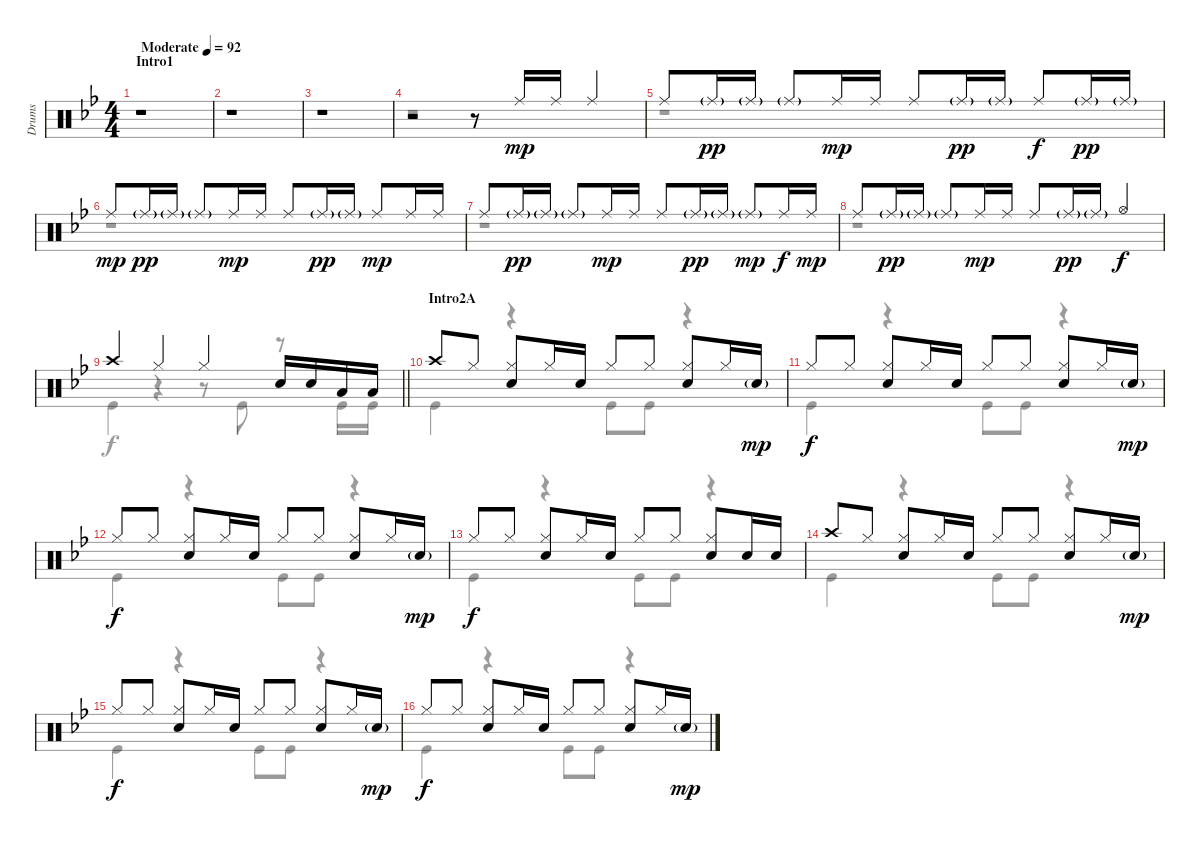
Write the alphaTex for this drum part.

\track ("Drums" "Drums") {instrument percussion}
\staff {score}
\articulation defaults
\voice
\ts (4 4)
\section ("" "Intro1")
\tempo (92 "Moderate")
\clef neutral
\ks bb
r.1{dy mp} |
r.1 |
r.1 |
r.2 r.8 "Ride (middle)".16 "Ride (middle)".16 "Ride (middle)".4 |
"Ride (middle)".8 "Ride (middle)"{g}.16{dy pp} "Ride (middle)"{g}.16 "Ride (middle)"{g}.8 "Ride (middle)".16{dy mp} "Ride (middle)".16 "Ride (middle)".8 "Ride (middle)"{g}.16{dy pp} "Ride (middle)"{g}.16 "Ride (middle)".8{dy f} "Ride (middle)"{g}.16{dy pp} "Ride (middle)"{g}.16 |
"Ride (middle)".8{dy mp} "Ride (middle)"{g}.16{dy pp} "Ride (middle)"{g}.16 "Ride (middle)"{g}.8 "Ride (middle)".16{dy mp} "Ride (middle)".16 "Ride (middle)".8 "Ride (middle)"{g}.16{dy pp} "Ride (middle)"{g}.16 "Ride (middle)".8{dy mp} "Ride (middle)".16 "Ride (middle)".16 |
"Ride (middle)".8 "Ride (middle)"{g}.16{dy pp} "Ride (middle)"{g}.16 "Ride (middle)"{g}.8 "Ride (middle)".16{dy mp} "Ride (middle)".16 "Ride (middle)".8 "Ride (middle)"{g}.16{dy pp} "Ride (middle)"{g}.16 "Ride (middle)"{g}.8{dy mp} "Ride (middle)".16{dy f} "Ride (middle)".16{dy mp} |
"Ride (middle)".8 "Ride (middle)"{g}.16{dy pp} "Ride (middle)"{g}.16 "Ride (middle)"{g}.8 "Ride (middle)".16{dy mp} "Ride (middle)".16 "Ride (middle)".8 "Ride (middle)"{g}.16{dy pp} "Ride (middle)"{g}.16 "Hi-Hat (open)".4{dy f} |
\barLineRight lightlight "Crash high (hit)".4 "Hi-Hat (closed)".4 "Hi-Hat (closed)".4 "Snare (hit) 2".16 "Snare (hit) 2".16 "Low Tom (hit)".16 "Low Tom (hit)".16
|
\section ("" "Intro2A")
"Crash high (hit)".8 "Hi-Hat (closed)".8 ("Hi-Hat (closed)" "Snare (hit) 2").8 "Hi-Hat (closed)".16 "Snare (hit) 2".16 "Hi-Hat (closed)".8 "Hi-Hat (closed)".8 ("Hi-Hat (closed)" "Snare (hit) 2").8 "Hi-Hat (closed)".16 "Snare (hit) 2"{g}.16{dy mp} |
"Hi-Hat (closed)".8{dy f} "Hi-Hat (closed)".8 ("Hi-Hat (closed)" "Snare (hit) 2").8 "Hi-Hat (closed)".16 "Snare (hit) 2".16 "Hi-Hat (closed)".8 "Hi-Hat (closed)".8 ("Hi-Hat (closed)" "Snare (hit) 2").8 "Hi-Hat (closed)".16 "Snare (hit) 2"{g}.16{dy mp} |
"Hi-Hat (closed)".8{dy f} "Hi-Hat (closed)".8 ("Hi-Hat (closed)" "Snare (hit) 2").8 "Hi-Hat (closed)".16 "Snare (hit) 2".16 "Hi-Hat (closed)".8 "Hi-Hat (closed)".8 ("Hi-Hat (closed)" "Snare (hit) 2").8 "Hi-Hat (closed)".16 "Snare (hit) 2"{g}.16{dy mp} |
"Hi-Hat (closed)".8{dy f} "Hi-Hat (closed)".8 ("Hi-Hat (closed)" "Snare (hit) 2").8 "Hi-Hat (closed)".16 "Snare (hit) 2".16 "Hi-Hat (closed)".8 "Hi-Hat (closed)".8 ("Hi-Hat (closed)" "Snare (hit) 2").8 "Snare (hit) 2".16 "Snare (hit) 2".16 |
"Crash high (hit)".8 "Hi-Hat (closed)".8 ("Hi-Hat (closed)" "Snare (hit) 2").8 "Hi-Hat (closed)".16 "Snare (hit) 2".16 "Hi-Hat (closed)".8 "Hi-Hat (closed)".8 ("Hi-Hat (closed)" "Snare (hit) 2").8 "Hi-Hat (closed)".16 "Snare (hit) 2"{g}.16{dy mp} |
"Hi-Hat (closed)".8{dy f} "Hi-Hat (closed)".8 ("Hi-Hat (closed)" "Snare (hit) 2").8 "Hi-Hat (closed)".16 "Snare (hit) 2".16 "Hi-Hat (closed)".8 "Hi-Hat (closed)".8 ("Hi-Hat (closed)" "Snare (hit) 2").8 "Hi-Hat (closed)".16 "Snare (hit) 2"{g}.16{dy mp} |
"Hi-Hat (closed)".8{dy f} "Hi-Hat (closed)".8 ("Hi-Hat (closed)" "Snare (hit) 2").8 "Hi-Hat (closed)".16 "Snare (hit) 2".16 "Hi-Hat (closed)".8 "Hi-Hat (closed)".8 ("Hi-Hat (closed)" "Snare (hit) 2").8 "Hi-Hat (closed)".16 "Snare (hit) 2"{g}.16{dy mp}
\voice
\clef neutral
\ottava regular
\simile none
\ks bb
r.1{dy f} |
r.1 |
r.1 |
r.1 |
r.1 |
r.1 |
r.1 |
r.1 |
\barLineRight lightlight "Kick (hit)".4
r.4 r.8 "Kick (hit)".8 r.8 "Kick (hit)".16 "Kick (hit)".16 |
"Kick (hit)".4 r.4 "Kick (hit)".8 "Kick (hit)".8 r.4 |
"Kick (hit)".4 r.4 "Kick (hit)".8 "Kick (hit)".8 r.4 |
"Kick (hit)".4 r.4 "Kick (hit)".8 "Kick (hit)".8 r.4 |
"Kick (hit)".4 r.4 "Kick (hit)".8 "Kick (hit)".8 r.4 |
"Kick (hit)".4 r.4 "Kick (hit)".8 "Kick (hit)".8 r.4 |
"Kick (hit)".4 r.4 "Kick (hit)".8 "Kick (hit)".8 r.4 |
"Kick (hit)".4 r.4 "Kick (hit)".8 "Kick (hit)".8 r.4
